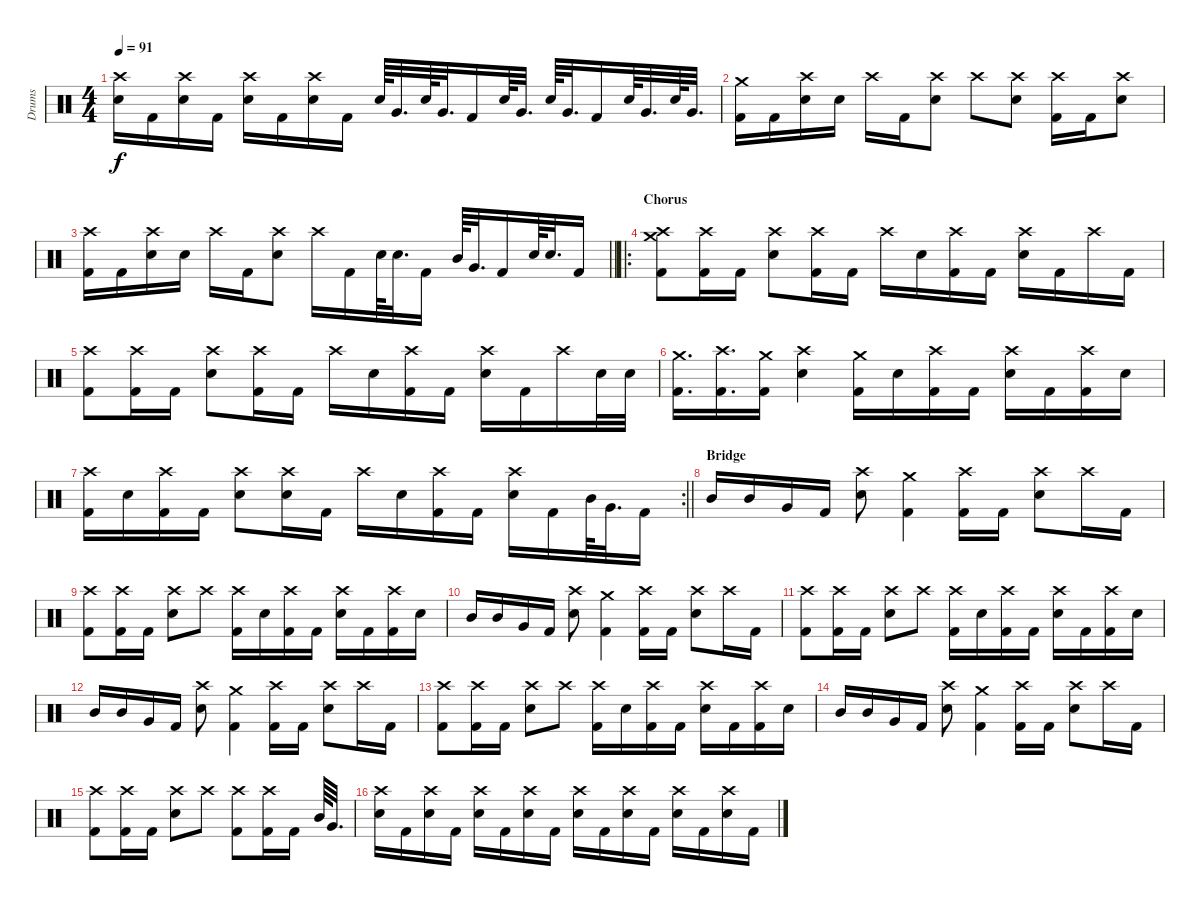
\track ("Drums" "Drums") {instrument percussion bank 34}
\staff {score}
\articulation defaults
\ts (4 4)
\tempo 91
\clef neutral
\ks c
("Crash high (hit)" "Electric Snare (hit)").16{dy f} "Kick (hit) 2".16 ("Crash high (hit)" "Electric Snare (hit)").16 "Kick (hit) 2".16 ("Crash high (hit)" "Electric Snare (hit)").16 "Kick (hit) 2".16 ("Crash high (hit)" "Electric Snare (hit)").16 "Kick (hit) 2".16 "Electric Snare (hit)".64 "Very Low Tom (hit)".32{d} "Electric Snare (hit)".64 "Very Low Tom (hit)".32{d} "Kick (hit) 2".16 "Electric Snare (hit)".64 "Very Low Tom (hit)".32{d} "Electric Snare (hit)".64 "Very Low Tom (hit)".32{d} "Kick (hit) 2".16 "Electric Snare (hit)".64 "Very Low Tom (hit)".32{d} "Electric Snare (hit)".64 "Very Low Tom (hit)".32{d} |
("Crash medium (hit)" "Kick (hit) 2").16 "Kick (hit) 2".16 ("Crash high (hit)" "Electric Snare (hit)").16 "Electric Snare (hit)".16 "Crash high (hit)".16 "Kick (hit) 2".16 ("Crash high (hit)" "Electric Snare (hit)").8 "Crash high (hit)".8 ("Crash high (hit)" "Electric Snare (hit)").8 ("Crash high (hit)" "Kick (hit) 2").16 "Kick (hit) 2".16 ("Crash high (hit)" "Electric Snare (hit)").8 |
\barLineRight lightlight
("Crash high (hit)" "Kick (hit) 2").16 "Kick (hit) 2".16 ("Crash high (hit)" "Electric Snare (hit)").16 "Electric Snare (hit)".16 "Crash high (hit)".16 "Kick (hit) 2".16 ("Crash high (hit)" "Electric Snare (hit)").8 "Crash high (hit)".16 "Kick (hit) 2".16 "Electric Snare (hit)".64 "Electric Snare (hit)".32{d} "Kick (hit) 2".16 "Mid Tom (hit)".64 "Very Low Tom (hit)".32{d} "Kick (hit) 2".16 "Electric Snare (hit)".64 "Electric Snare (hit)".32{d} "Kick (hit) 2".16 |
\ro
\section ("" "Chorus")
("Crash medium (hit)" "Crash high (hit)" "Kick (hit) 2").8 ("Crash high (hit)" "Kick (hit) 2").16 "Kick (hit) 2".16 ("Crash high (hit)" "Electric Snare (hit)").8 ("Crash high (hit)" "Kick (hit) 2").16 "Kick (hit) 2".16 "Crash high (hit)".16 "Electric Snare (hit)".16 ("Crash high (hit)" "Kick (hit) 2").16 "Kick (hit) 2".16 ("Crash high (hit)" "Electric Snare (hit)").16 "Kick (hit) 2".16 "Crash high (hit)".16 "Kick (hit) 2".16 |
("Crash high (hit)" "Kick (hit) 2").8 ("Crash high (hit)" "Kick (hit) 2").16 "Kick (hit) 2".16 ("Crash high (hit)" "Electric Snare (hit)").8 ("Crash high (hit)" "Kick (hit) 2").16 "Kick (hit) 2".16 "Crash high (hit)".16 "Electric Snare (hit)".16 ("Crash high (hit)" "Kick (hit) 2").16 "Kick (hit) 2".16 ("Crash high (hit)" "Electric Snare (hit)").16 "Kick (hit) 2".16 "Crash high (hit)".16 "Electric Snare (hit)".32 "Electric Snare (hit)".32 |
("Crash medium (hit)" "Kick (hit) 2").16{d} ("Crash high (hit)" "Kick (hit) 2").16{d} ("Crash medium (hit)" "Kick (hit) 2").16 ("Crash high (hit)" "Electric Snare (hit)").4 ("Crash medium (hit)" "Kick (hit) 2").16 "Electric Snare (hit)".16 ("Crash high (hit)" "Kick (hit) 2").16 "Kick (hit) 2".16 ("Crash high (hit)" "Electric Snare (hit)").16 "Kick (hit) 2".16 ("Crash high (hit)" "Kick (hit) 2").16 "Electric Snare (hit)".16 |
\rc 2
\barLineRight lightlight
("Crash high (hit)" "Kick (hit) 2").16 "Electric Snare (hit)".16 ("Crash high (hit)" "Kick (hit) 2").16 "Kick (hit) 2".16 ("Crash high (hit)" "Electric Snare (hit)").8 ("Crash high (hit)" "Electric Snare (hit)").16 "Kick (hit) 2".16 "Crash high (hit)".16 "Electric Snare (hit)".16 ("Crash high (hit)" "Kick (hit) 2").16 "Kick (hit) 2".16 ("Crash high (hit)" "Electric Snare (hit)").16 "Kick (hit) 2".16 "Mid Tom (hit)".64 "Very Low Tom (hit)".32{d} "Kick (hit) 2".16 |
\section ("" "Bridge")
"Mid Tom (hit)".16 "Mid Tom (hit)".16 "Very Low Tom (hit)".16 "Kick (hit) 2".16 ("Crash high (hit)" "Electric Snare (hit)").8 ("Crash medium (hit)" "Kick (hit) 2").4 ("Crash high (hit)" "Kick (hit) 2").16 "Kick (hit) 2".16 ("Crash high (hit)" "Electric Snare (hit)").8 "Crash high (hit)".16 "Kick (hit) 2".16 |
("Crash high (hit)" "Kick (hit) 2").8 ("Crash high (hit)" "Kick (hit) 2").16 "Kick (hit) 2".16 ("Crash high (hit)" "Electric Snare (hit)").8 "Crash high (hit)".8 ("Crash high (hit)" "Kick (hit) 2").16 "Electric Snare (hit)".16 ("Crash high (hit)" "Kick (hit) 2").16 "Kick (hit) 2".16 ("Crash high (hit)" "Electric Snare (hit)").16 "Kick (hit) 2".16 ("Crash high (hit)" "Kick (hit) 2").16 "Electric Snare (hit)".16 |
"Mid Tom (hit)".16 "Mid Tom (hit)".16 "Very Low Tom (hit)".16 "Kick (hit) 2".16 ("Crash high (hit)" "Electric Snare (hit)").8 ("Crash medium (hit)" "Kick (hit) 2").4 ("Crash high (hit)" "Kick (hit) 2").16 "Kick (hit) 2".16 ("Crash high (hit)" "Electric Snare (hit)").8 "Crash high (hit)".16 "Kick (hit) 2".16 |
("Crash high (hit)" "Kick (hit) 2").8 ("Crash high (hit)" "Kick (hit) 2").16 "Kick (hit) 2".16 ("Crash high (hit)" "Electric Snare (hit)").8 "Crash high (hit)".8 ("Crash high (hit)" "Kick (hit) 2").16 "Electric Snare (hit)".16 ("Crash high (hit)" "Kick (hit) 2").16 "Kick (hit) 2".16 ("Crash high (hit)" "Electric Snare (hit)").16 "Kick (hit) 2".16 ("Crash high (hit)" "Kick (hit) 2").16 "Electric Snare (hit)".16 |
"Mid Tom (hit)".16 "Mid Tom (hit)".16 "Very Low Tom (hit)".16 "Kick (hit) 2".16 ("Crash high (hit)" "Electric Snare (hit)").8 ("Crash medium (hit)" "Kick (hit) 2").4 ("Crash high (hit)" "Kick (hit) 2").16 "Kick (hit) 2".16 ("Crash high (hit)" "Electric Snare (hit)").8 "Crash high (hit)".16 "Kick (hit) 2".16 |
("Crash high (hit)" "Kick (hit) 2").8 ("Crash high (hit)" "Kick (hit) 2").16 "Kick (hit) 2".16 ("Crash high (hit)" "Electric Snare (hit)").8 "Crash high (hit)".8 ("Crash high (hit)" "Kick (hit) 2").16 "Electric Snare (hit)".16 ("Crash high (hit)" "Kick (hit) 2").16 "Kick (hit) 2".16 ("Crash high (hit)" "Electric Snare (hit)").16 "Kick (hit) 2".16 ("Crash high (hit)" "Kick (hit) 2").16 "Electric Snare (hit)".16 |
"Mid Tom (hit)".16 "Mid Tom (hit)".16 "Very Low Tom (hit)".16 "Kick (hit) 2".16 ("Crash high (hit)" "Electric Snare (hit)").8 ("Crash medium (hit)" "Kick (hit) 2").4 ("Crash high (hit)" "Kick (hit) 2").16 "Kick (hit) 2".16 ("Crash high (hit)" "Electric Snare (hit)").8 "Crash high (hit)".16 "Kick (hit) 2".16 |
("Crash high (hit)" "Kick (hit) 2").8 ("Crash high (hit)" "Kick (hit) 2").16 "Kick (hit) 2".16 ("Crash high (hit)" "Electric Snare (hit)").8 "Crash high (hit)".8 ("Crash high (hit)" "Kick (hit) 2").8 ("Crash high (hit)" "Kick (hit) 2").16 "Kick (hit) 2".16 "Mid Tom (hit)".64 "Very Low Tom (hit)".32{d} |
("Crash high (hit)" "Electric Snare (hit)").16 "Kick (hit) 2".16 ("Crash high (hit)" "Electric Snare (hit)").16 "Kick (hit) 2".16 ("Crash high (hit)" "Electric Snare (hit)").16 "Kick (hit) 2".16 ("Crash high (hit)" "Electric Snare (hit)").16 "Kick (hit) 2".16 ("Crash high (hit)" "Electric Snare (hit)").16 "Kick (hit) 2".16 ("Crash high (hit)" "Electric Snare (hit)").16 "Kick (hit) 2".16 ("Crash high (hit)" "Electric Snare (hit)").16 "Kick (hit) 2".16 ("Crash high (hit)" "Electric Snare (hit)").16 "Kick (hit) 2".16
